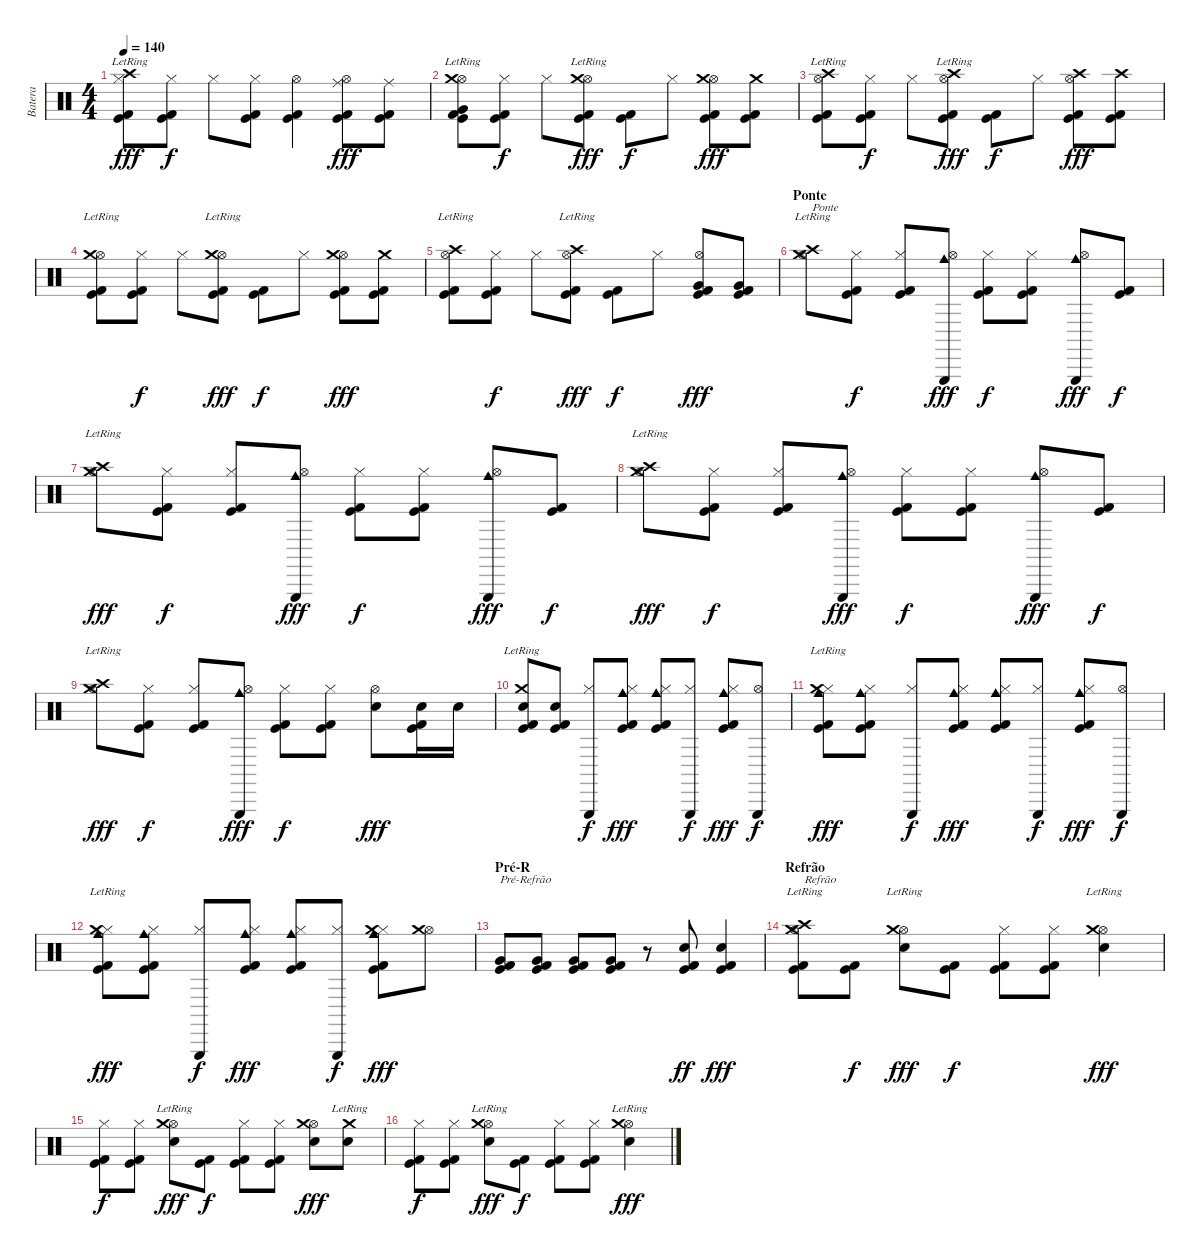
\track ("Batera" "Batera") {instrument percussion}
\staff {score}
\articulation defaults
\ts (4 4)
\tempo 140
\clef neutral
\ks c
("Hi-Hat (closed)" "Kick (hit)" "Crash high (hit)"{lr} "Kick (hit) 2").8{dy fff} ("Hi-Hat (closed)" "Kick (hit)" "Kick (hit) 2").8{dy f} "Hi-Hat (closed)".8 ("Hi-Hat (closed)" "Kick (hit)" "Kick (hit) 2").8 ("Hi-Hat (open)" "Kick (hit)" "Kick (hit) 2").4 ("Hi-Hat (open)" "Kick (hit)" "Ride (middle)" "Kick (hit) 2").8{dy fff} ("Kick (hit)" "Ride (middle)" "Kick (hit) 2").8 |
("Hi-Hat (open)" "Kick (hit)" "Very Low Tom (hit)" "Crash medium (hit)"{lr} "Kick (hit) 2").8 ("Hi-Hat (closed)" "Kick (hit)" "Kick (hit) 2").8{dy f} "Hi-Hat (closed)".8 ("Hi-Hat (open)" "Kick (hit)" "Crash medium (hit)"{lr} "Kick (hit) 2").8{dy fff} ("Kick (hit)" "Kick (hit) 2").8{dy f} "Hi-Hat (closed)".8 ("Hi-Hat (open)" "Kick (hit)" "Crash medium (hit)" "Kick (hit) 2").8{dy fff} ("Kick (hit)" "Crash medium (hit)" "Kick (hit) 2").8 |
("Hi-Hat (open)" "Kick (hit)" "Crash high (hit)"{lr} "Kick (hit) 2").8 ("Hi-Hat (closed)" "Kick (hit)" "Kick (hit) 2").8{dy f} "Hi-Hat (closed)".8 ("Hi-Hat (open)" "Kick (hit)" "Crash high (hit)"{lr} "Kick (hit) 2").8{dy fff} ("Kick (hit)" "Kick (hit) 2").8{dy f} "Hi-Hat (closed)".8 ("Hi-Hat (open)" "Kick (hit)" "Crash high (hit)" "Kick (hit) 2").8{dy fff} ("Kick (hit)" "Crash high (hit)" "Kick (hit) 2").8 |
("Hi-Hat (open)" "Kick (hit)" "Crash medium (hit)"{lr} "Kick (hit) 2").8 ("Hi-Hat (closed)" "Kick (hit)" "Kick (hit) 2").8{dy f} "Hi-Hat (closed)".8 ("Hi-Hat (open)" "Kick (hit)" "Crash medium (hit)"{lr} "Kick (hit) 2").8{dy fff} ("Kick (hit)" "Kick (hit) 2").8{dy f} "Hi-Hat (closed)".8 ("Hi-Hat (open)" "Kick (hit)" "Crash medium (hit)" "Kick (hit) 2").8{dy fff} ("Kick (hit)" "Crash medium (hit)" "Kick (hit) 2").8 |
("Hi-Hat (open)" "Kick (hit)" "Crash high (hit)"{lr} "Kick (hit) 2").8 ("Hi-Hat (closed)" "Kick (hit)" "Kick (hit) 2").8{dy f} "Hi-Hat (closed)".8 ("Hi-Hat (open)" "Kick (hit)" "Crash high (hit)"{lr} "Kick (hit) 2").8{dy fff} ("Kick (hit)" "Kick (hit) 2").8{dy f} "Hi-Hat (closed)".8 ("Hi-Hat (open)" "Kick (hit)" "Very Low Tom (hit)" "Kick (hit) 2").8{dy fff} ("Kick (hit)" "Very Low Tom (hit)" "Kick (hit) 2").8 |
\section ("" "Ponte")
("Hi-Hat (open)" "Crash medium (hit)"{lr} "Crash high (hit)"{lr}).8{txt "Ponte"} ("Hi-Hat (closed)" "Kick (hit)" "Kick (hit) 2").8{dy f} ("Hi-Hat (closed)" "Kick (hit)" "Kick (hit) 2").8 ("Hi-Hat (open)" "Cowbell medium (hit)" "Triangle (hit)").8{dy fff} ("Hi-Hat (closed)" "Kick (hit)" "Kick (hit) 2").8{dy f} ("Hi-Hat (closed)" "Kick (hit)" "Kick (hit) 2").8 ("Hi-Hat (open)" "Cowbell medium (hit)" "Triangle (hit)").8{dy fff} ("Kick (hit)" "Kick (hit) 2").8{dy f} |
("Hi-Hat (open)" "Crash medium (hit)"{lr} "Crash high (hit)"{lr}).8{dy fff} ("Hi-Hat (closed)" "Kick (hit)" "Kick (hit) 2").8{dy f} ("Hi-Hat (closed)" "Kick (hit)" "Kick (hit) 2").8 ("Hi-Hat (open)" "Cowbell medium (hit)" "Triangle (hit)").8{dy fff} ("Hi-Hat (closed)" "Kick (hit)" "Kick (hit) 2").8{dy f} ("Hi-Hat (closed)" "Kick (hit)" "Kick (hit) 2").8 ("Hi-Hat (open)" "Cowbell medium (hit)" "Triangle (hit)").8{dy fff} ("Kick (hit)" "Kick (hit) 2").8{dy f} |
("Hi-Hat (open)" "Crash medium (hit)"{lr} "Crash high (hit)"{lr}).8{dy fff} ("Hi-Hat (closed)" "Kick (hit)" "Kick (hit) 2").8{dy f} ("Hi-Hat (closed)" "Kick (hit)" "Kick (hit) 2").8 ("Hi-Hat (open)" "Cowbell medium (hit)" "Triangle (hit)").8{dy fff} ("Hi-Hat (closed)" "Kick (hit)" "Kick (hit) 2").8{dy f} ("Hi-Hat (closed)" "Kick (hit)" "Kick (hit) 2").8 ("Hi-Hat (open)" "Cowbell medium (hit)" "Triangle (hit)").8{dy fff} ("Kick (hit)" "Kick (hit) 2").8{dy f} |
("Hi-Hat (open)" "Crash medium (hit)"{lr} "Crash high (hit)"{lr}).8{dy fff} ("Hi-Hat (closed)" "Kick (hit)" "Kick (hit) 2").8{dy f} ("Hi-Hat (closed)" "Kick (hit)" "Kick (hit) 2").8 ("Hi-Hat (open)" "Cowbell medium (hit)" "Triangle (hit)").8{dy fff} ("Hi-Hat (closed)" "Kick (hit)" "Kick (hit) 2").8{dy f} ("Hi-Hat (closed)" "Kick (hit)" "Kick (hit) 2").8 ("Hi-Hat (open)" "Electric Snare (hit)").8{dy fff} ("Kick (hit)" "Electric Snare (hit)" "Kick (hit) 2").16 "Electric Snare (hit)".16 |
("Kick (hit)" "Electric Snare (hit)" "Crash medium (hit)"{lr} "Kick (hit) 2").8 ("Kick (hit)" "Electric Snare (hit)" "Kick (hit) 2").8 ("Hi-Hat (closed)" "Triangle (hit)").8{dy f} ("Hi-Hat (closed)" "Kick (hit)" "Cowbell medium (hit)" "Kick (hit) 2").8{dy fff} ("Hi-Hat (closed)" "Kick (hit)" "Cowbell medium (hit)" "Kick (hit) 2").8 ("Hi-Hat (closed)" "Triangle (hit)").8{dy f} ("Hi-Hat (closed)" "Kick (hit)" "Cowbell medium (hit)" "Kick (hit) 2").8{dy fff} ("Hi-Hat (open)" "Triangle (hit)").8{dy f} |
("Hi-Hat (closed)" "Kick (hit)" "Crash medium (hit)"{lr} "Cowbell medium (hit)" "Kick (hit) 2").8{dy fff} ("Hi-Hat (closed)" "Kick (hit)" "Cowbell medium (hit)" "Kick (hit) 2").8 ("Hi-Hat (closed)" "Triangle (hit)").8{dy f} ("Hi-Hat (closed)" "Kick (hit)" "Cowbell medium (hit)" "Kick (hit) 2").8{dy fff} ("Hi-Hat (closed)" "Kick (hit)" "Cowbell medium (hit)" "Kick (hit) 2").8 ("Hi-Hat (closed)" "Triangle (hit)").8{dy f} ("Hi-Hat (closed)" "Kick (hit)" "Cowbell medium (hit)" "Kick (hit) 2").8{dy fff} ("Hi-Hat (open)" "Triangle (hit)").8{dy f} |
("Hi-Hat (closed)" "Kick (hit)" "Crash medium (hit)"{lr} "Cowbell medium (hit)" "Kick (hit) 2").8{dy fff} ("Hi-Hat (closed)" "Kick (hit)" "Cowbell medium (hit)" "Kick (hit) 2").8 ("Hi-Hat (closed)" "Triangle (hit)").8{dy f} ("Hi-Hat (closed)" "Kick (hit)" "Cowbell medium (hit)" "Kick (hit) 2").8{dy fff} ("Hi-Hat (closed)" "Kick (hit)" "Cowbell medium (hit)" "Kick (hit) 2").8 ("Hi-Hat (closed)" "Triangle (hit)").8{dy f} ("Hi-Hat (closed)" "Kick (hit)" "Crash medium (hit)" "Cowbell medium (hit)" "Kick (hit) 2").8{dy fff} ("Hi-Hat (open)" "Crash medium (hit)").8 |
\section ("" "Pré-R")
("Kick (hit)" "Very Low Tom (hit)" "Kick (hit) 2").8{txt "Pré-Refrão"} ("Kick (hit)" "Very Low Tom (hit)" "Kick (hit) 2").8 ("Kick (hit)" "Very Low Tom (hit)" "Kick (hit) 2").8 ("Kick (hit)" "Very Low Tom (hit)" "Kick (hit) 2").8 r.8 ("Kick (hit)" "Metronome (bell)" "Kick (hit) 2").8{dy ff} ("Kick (hit)" "Metronome (bell)" "Kick (hit) 2").4{dy fff} |
\section ("" "Refrão")
("Hi-Hat (open)" "Kick (hit)" "Crash medium (hit)"{lr} "Crash high (hit)"{lr} "Kick (hit) 2").8{txt "Refrão"} ("Kick (hit)" "Kick (hit) 2").8{dy f} ("Hi-Hat (open)" "Electric Snare (hit)" "Crash medium (hit)"{lr}).8{dy fff} ("Kick (hit)" "Kick (hit) 2").8{dy f} ("Hi-Hat (closed)" "Kick (hit)" "Kick (hit) 2").8 ("Hi-Hat (closed)" "Kick (hit)" "Kick (hit) 2").8 ("Hi-Hat (open)" "Electric Snare (hit)" "Crash medium (hit)"{lr}).4{dy fff} |
("Hi-Hat (closed)" "Kick (hit)" "Kick (hit) 2").8{dy f} ("Hi-Hat (closed)" "Kick (hit)" "Kick (hit) 2").8 ("Hi-Hat (open)" "Electric Snare (hit)" "Crash medium (hit)"{lr}).8{dy fff} ("Kick (hit)" "Kick (hit) 2").8{dy f} ("Hi-Hat (closed)" "Kick (hit)" "Kick (hit) 2").8 ("Hi-Hat (closed)" "Kick (hit)" "Kick (hit) 2").8 ("Hi-Hat (open)" "Electric Snare (hit)" "Crash medium (hit)").8{dy fff} ("Electric Snare (hit)" "Crash medium (hit)"{lr}).8 |
("Hi-Hat (closed)" "Kick (hit)" "Kick (hit) 2").8{dy f} ("Hi-Hat (closed)" "Kick (hit)" "Kick (hit) 2").8 ("Hi-Hat (open)" "Electric Snare (hit)" "Crash medium (hit)"{lr}).8{dy fff} ("Kick (hit)" "Kick (hit) 2").8{dy f} ("Hi-Hat (closed)" "Kick (hit)" "Kick (hit) 2").8 ("Hi-Hat (closed)" "Kick (hit)" "Kick (hit) 2").8 ("Hi-Hat (open)" "Electric Snare (hit)" "Crash medium (hit)"{lr}).4{dy fff}
